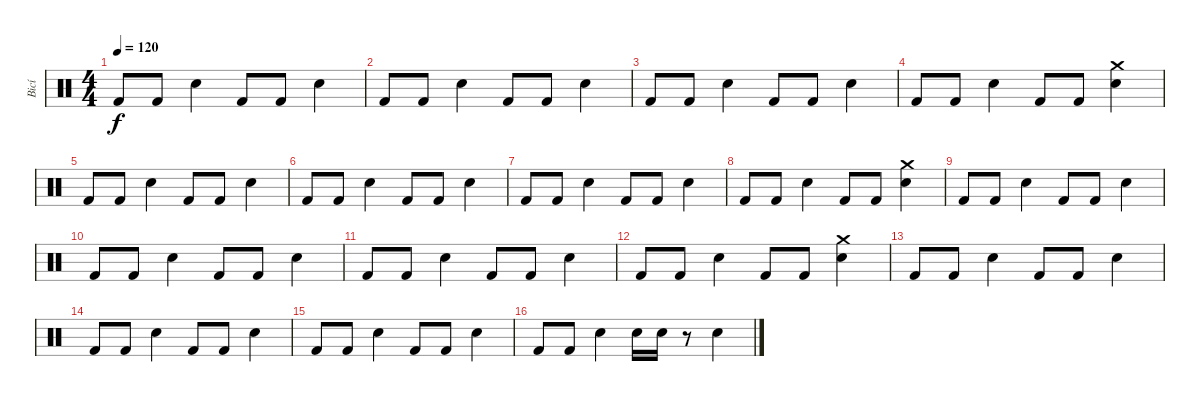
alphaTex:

\track ("Bicí" "Bicí") {instrument percussion}
\staff {score}
\articulation defaults
\ts (4 4)
\tempo 120
\clef neutral
\ks c "Kick (hit) 2".8{dy f} "Kick (hit) 2".8 "Electric Snare (hit)".4 "Kick (hit) 2".8 "Kick (hit) 2".8 "Electric Snare (hit)".4
|
"Kick (hit) 2".8 "Kick (hit) 2".8 "Electric Snare (hit)".4 "Kick (hit) 2".8 "Kick (hit) 2".8 "Electric Snare (hit)".4 |
"Kick (hit) 2".8 "Kick (hit) 2".8 "Electric Snare (hit)".4 "Kick (hit) 2".8 "Kick (hit) 2".8 "Electric Snare (hit)".4 |
"Kick (hit) 2".8 "Kick (hit) 2".8 "Electric Snare (hit)".4 "Kick (hit) 2".8 "Kick (hit) 2".8 ("Electric Snare (hit)" "Crash medium (hit)").4 |
"Kick (hit) 2".8 "Kick (hit) 2".8 "Electric Snare (hit)".4 "Kick (hit) 2".8 "Kick (hit) 2".8 "Electric Snare (hit)".4 |
"Kick (hit) 2".8 "Kick (hit) 2".8 "Electric Snare (hit)".4 "Kick (hit) 2".8 "Kick (hit) 2".8 "Electric Snare (hit)".4 |
"Kick (hit) 2".8 "Kick (hit) 2".8 "Electric Snare (hit)".4 "Kick (hit) 2".8 "Kick (hit) 2".8 "Electric Snare (hit)".4 |
"Kick (hit) 2".8 "Kick (hit) 2".8 "Electric Snare (hit)".4 "Kick (hit) 2".8 "Kick (hit) 2".8 ("Electric Snare (hit)" "Crash medium (hit)").4 |
"Kick (hit) 2".8 "Kick (hit) 2".8 "Electric Snare (hit)".4 "Kick (hit) 2".8 "Kick (hit) 2".8 "Electric Snare (hit)".4 |
"Kick (hit) 2".8 "Kick (hit) 2".8 "Electric Snare (hit)".4 "Kick (hit) 2".8 "Kick (hit) 2".8 "Electric Snare (hit)".4 |
"Kick (hit) 2".8 "Kick (hit) 2".8 "Electric Snare (hit)".4 "Kick (hit) 2".8 "Kick (hit) 2".8 "Electric Snare (hit)".4 |
"Kick (hit) 2".8 "Kick (hit) 2".8 "Electric Snare (hit)".4 "Kick (hit) 2".8 "Kick (hit) 2".8 ("Electric Snare (hit)" "Crash medium (hit)").4 |
"Kick (hit) 2".8 "Kick (hit) 2".8 "Electric Snare (hit)".4 "Kick (hit) 2".8 "Kick (hit) 2".8 "Electric Snare (hit)".4 |
"Kick (hit) 2".8 "Kick (hit) 2".8 "Electric Snare (hit)".4 "Kick (hit) 2".8 "Kick (hit) 2".8 "Electric Snare (hit)".4 |
"Kick (hit) 2".8 "Kick (hit) 2".8 "Electric Snare (hit)".4 "Kick (hit) 2".8 "Kick (hit) 2".8 "Electric Snare (hit)".4 |
"Kick (hit) 2".8 "Kick (hit) 2".8 "Electric Snare (hit)".4 "Electric Snare (hit)".16 "Electric Snare (hit)".16 r.8 "Electric Snare (hit)".4
